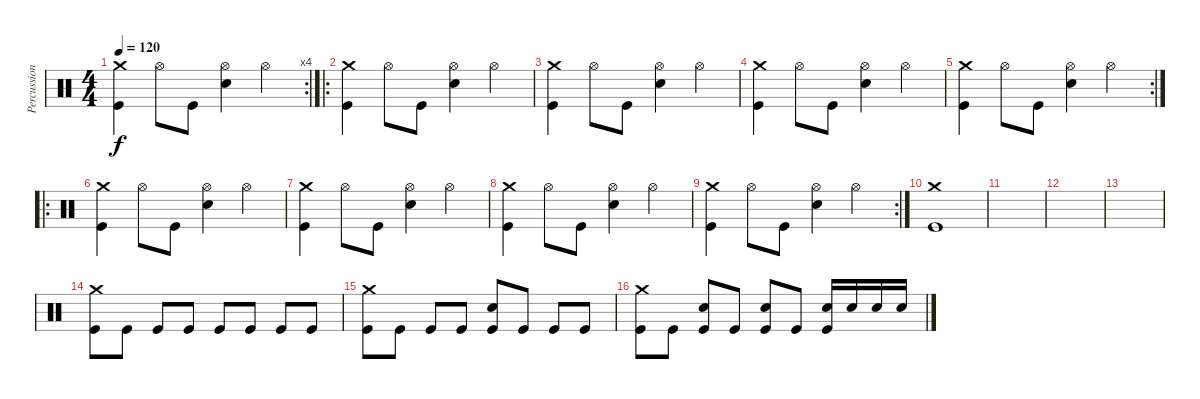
\track ("Percussion" "Percussion") {instrument percussion}
\staff {score}
\articulation defaults
\rc 4
\ts (4 4)
\tempo 120
\clef neutral
\ks c
("Crash medium (hit)" "Kick (hit)").4{dy f} "Hi-Hat (open)".8 "Kick (hit)".8 ("Hi-Hat (open)" "Snare (hit) 2").4 "Hi-Hat (open)".4 |
\ro
("Crash medium (hit)" "Kick (hit)").4 "Hi-Hat (open)".8 "Kick (hit)".8 ("Hi-Hat (open)" "Snare (hit) 2").4 "Hi-Hat (open)".4 |
("Crash medium (hit)" "Kick (hit)").4 "Hi-Hat (open)".8 "Kick (hit)".8 ("Hi-Hat (open)" "Snare (hit) 2").4 "Hi-Hat (open)".4 |
("Crash medium (hit)" "Kick (hit)").4 "Hi-Hat (open)".8 "Kick (hit)".8 ("Hi-Hat (open)" "Snare (hit) 2").4 "Hi-Hat (open)".4 |
\rc 2
("Crash medium (hit)" "Kick (hit)").4 "Hi-Hat (open)".8 "Kick (hit)".8 ("Hi-Hat (open)" "Snare (hit) 2").4 "Hi-Hat (open)".4 |
\ro
("Crash medium (hit)" "Kick (hit)").4 "Hi-Hat (open)".8 "Kick (hit)".8 ("Hi-Hat (open)" "Snare (hit) 2").4 "Hi-Hat (open)".4 |
("Crash medium (hit)" "Kick (hit)").4 "Hi-Hat (open)".8 "Kick (hit)".8 ("Hi-Hat (open)" "Snare (hit) 2").4 "Hi-Hat (open)".4 |
("Crash medium (hit)" "Kick (hit)").4 "Hi-Hat (open)".8 "Kick (hit)".8 ("Hi-Hat (open)" "Snare (hit) 2").4 "Hi-Hat (open)".4 |
\rc 2
("Crash medium (hit)" "Kick (hit)").4 "Hi-Hat (open)".8 "Kick (hit)".8 ("Hi-Hat (open)" "Snare (hit) 2").4 "Hi-Hat (open)".4 |
("Crash medium (hit)" "Kick (hit)").1 |
|
|
|
("Crash medium (hit)" "Kick (hit)").8 "Kick (hit)".8 "Kick (hit)".8 "Kick (hit)".8 "Kick (hit)".8 "Kick (hit)".8 "Kick (hit)".8 "Kick (hit)".8 |
("Crash medium (hit)" "Kick (hit)").8 "Kick (hit)".8 "Kick (hit)".8 "Kick (hit)".8 ("Snare (hit) 2" "Kick (hit)").8 "Kick (hit)".8 "Kick (hit)".8 "Kick (hit)".8 |
("Crash medium (hit)" "Kick (hit)").8 "Kick (hit)".8 ("Snare (hit) 2" "Kick (hit)").8 "Kick (hit)".8 ("Snare (hit) 2" "Kick (hit)").8 "Kick (hit)".8 ("Snare (hit) 2" "Kick (hit)").16 "Snare (hit) 2".16 "Snare (hit) 2".16 "Snare (hit) 2".16
